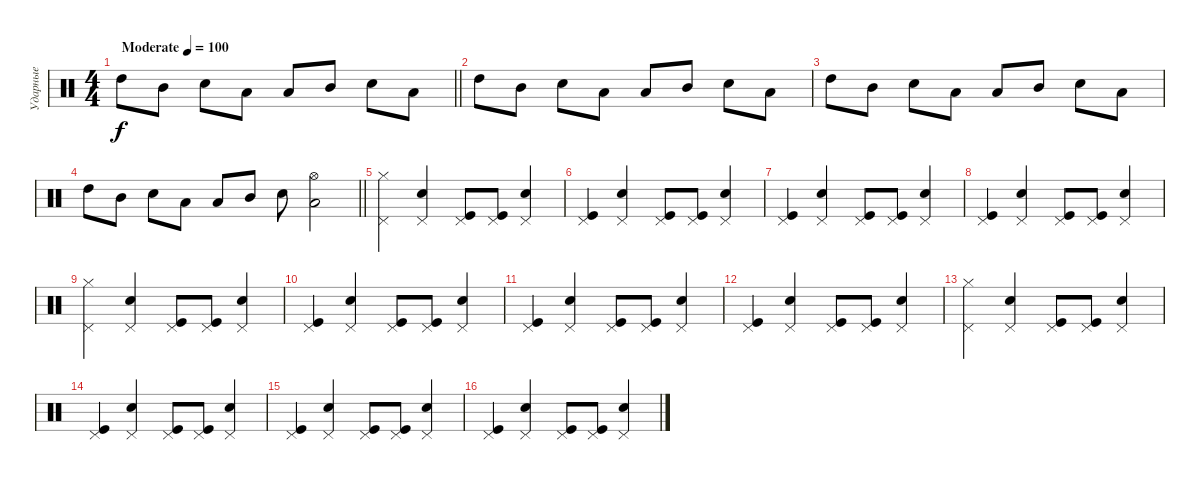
\track ("Ударные" "Ударные") {instrument percussion}
\staff {score}
\articulation defaults
\ts (4 4)
\tempo (100 "Moderate")
\clef neutral
\barLineRight lightlight
\ks c "High Tom (hit)".8{dy f} "Mid Tom (hit)".8 "Snare (hit) 2".8 "Low Floor Tom (hit)".8 "Low Tom (hit)".8 "Mid Tom (hit)".8 "Snare (hit) 2".8 "Low Floor Tom (hit)".8
|
"High Tom (hit)".8 "Mid Tom (hit)".8 "Snare (hit) 2".8 "Low Floor Tom (hit)".8 "Low Tom (hit)".8 "Mid Tom (hit)".8 "Snare (hit) 2".8 "Low Floor Tom (hit)".8 |
"High Tom (hit)".8 "Mid Tom (hit)".8 "Snare (hit) 2".8 "Low Floor Tom (hit)".8 "Low Tom (hit)".8 "Mid Tom (hit)".8 "Snare (hit) 2".8 "Low Floor Tom (hit)".8 |
\barLineRight lightlight "High Tom (hit)".8 "Mid Tom (hit)".8 "Snare (hit) 2".8 "Low Floor Tom (hit)".8 "Low Tom (hit)".8 "Mid Tom (hit)".8 "Snare (hit) 2".8
("Low Floor Tom (hit)" "Hi-Hat (open)").2 |
("Pedal Hi-Hat (hit)" "Hi-Hat (closed)").4 ("Pedal Hi-Hat (hit)" "Snare (hit) 2").4 ("Pedal Hi-Hat (hit)" "Kick (hit)").8 ("Pedal Hi-Hat (hit)" "Kick (hit)").8 ("Pedal Hi-Hat (hit)" "Snare (hit) 2").4 |
("Pedal Hi-Hat (hit)" "Kick (hit)").4 ("Pedal Hi-Hat (hit)" "Snare (hit) 2").4 ("Pedal Hi-Hat (hit)" "Kick (hit)").8 ("Pedal Hi-Hat (hit)" "Kick (hit)").8 ("Pedal Hi-Hat (hit)" "Snare (hit) 2").4 |
("Pedal Hi-Hat (hit)" "Kick (hit)").4 ("Pedal Hi-Hat (hit)" "Snare (hit) 2").4 ("Pedal Hi-Hat (hit)" "Kick (hit)").8 ("Pedal Hi-Hat (hit)" "Kick (hit)").8 ("Pedal Hi-Hat (hit)" "Snare (hit) 2").4 |
("Pedal Hi-Hat (hit)" "Kick (hit)").4 ("Pedal Hi-Hat (hit)" "Snare (hit) 2").4 ("Pedal Hi-Hat (hit)" "Kick (hit)").8 ("Pedal Hi-Hat (hit)" "Kick (hit)").8 ("Pedal Hi-Hat (hit)" "Snare (hit) 2").4 |
("Pedal Hi-Hat (hit)" "Hi-Hat (closed)").4 ("Pedal Hi-Hat (hit)" "Snare (hit) 2").4 ("Pedal Hi-Hat (hit)" "Kick (hit)").8 ("Pedal Hi-Hat (hit)" "Kick (hit)").8 ("Pedal Hi-Hat (hit)" "Snare (hit) 2").4 |
("Pedal Hi-Hat (hit)" "Kick (hit)").4 ("Pedal Hi-Hat (hit)" "Snare (hit) 2").4 ("Pedal Hi-Hat (hit)" "Kick (hit)").8 ("Pedal Hi-Hat (hit)" "Kick (hit)").8 ("Pedal Hi-Hat (hit)" "Snare (hit) 2").4 |
("Pedal Hi-Hat (hit)" "Kick (hit)").4 ("Pedal Hi-Hat (hit)" "Snare (hit) 2").4 ("Pedal Hi-Hat (hit)" "Kick (hit)").8 ("Pedal Hi-Hat (hit)" "Kick (hit)").8 ("Pedal Hi-Hat (hit)" "Snare (hit) 2").4 |
("Pedal Hi-Hat (hit)" "Kick (hit)").4 ("Pedal Hi-Hat (hit)" "Snare (hit) 2").4 ("Pedal Hi-Hat (hit)" "Kick (hit)").8 ("Pedal Hi-Hat (hit)" "Kick (hit)").8 ("Pedal Hi-Hat (hit)" "Snare (hit) 2").4 |
("Pedal Hi-Hat (hit)" "Hi-Hat (closed)").4 ("Pedal Hi-Hat (hit)" "Snare (hit) 2").4 ("Pedal Hi-Hat (hit)" "Kick (hit)").8 ("Pedal Hi-Hat (hit)" "Kick (hit)").8 ("Pedal Hi-Hat (hit)" "Snare (hit) 2").4 |
("Pedal Hi-Hat (hit)" "Kick (hit)").4 ("Pedal Hi-Hat (hit)" "Snare (hit) 2").4 ("Pedal Hi-Hat (hit)" "Kick (hit)").8 ("Pedal Hi-Hat (hit)" "Kick (hit)").8 ("Pedal Hi-Hat (hit)" "Snare (hit) 2").4 |
("Pedal Hi-Hat (hit)" "Kick (hit)").4 ("Pedal Hi-Hat (hit)" "Snare (hit) 2").4 ("Pedal Hi-Hat (hit)" "Kick (hit)").8 ("Pedal Hi-Hat (hit)" "Kick (hit)").8 ("Pedal Hi-Hat (hit)" "Snare (hit) 2").4 |
("Pedal Hi-Hat (hit)" "Kick (hit)").4 ("Pedal Hi-Hat (hit)" "Snare (hit) 2").4 ("Pedal Hi-Hat (hit)" "Kick (hit)").8 ("Pedal Hi-Hat (hit)" "Kick (hit)").8 ("Pedal Hi-Hat (hit)" "Snare (hit) 2").4
